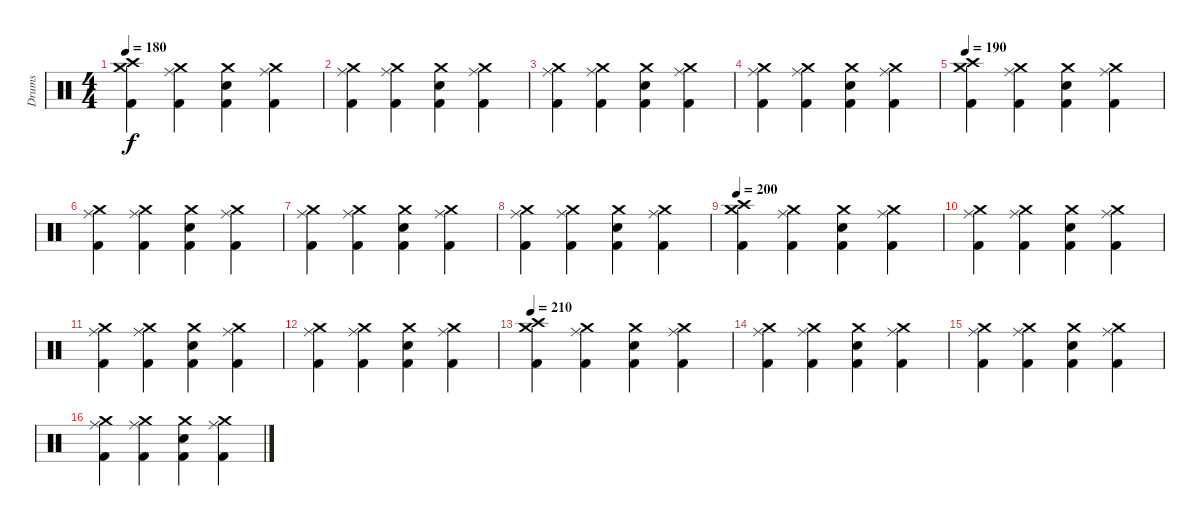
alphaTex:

\track ("Drums" "Drums") {instrument percussion}
\staff {score}
\articulation defaults
\ts (4 4)
\tempo 180
\clef neutral
\ks c
("Crash medium (hit)" "Crash high (hit)" "Kick (hit) 2").4{dy f} ("Crash medium (hit)" "Ride (middle)" "Kick (hit) 2").4 ("Crash medium (hit)" "Snare (hit) 2" "Kick (hit) 2").4 ("Crash medium (hit)" "Ride (middle)" "Kick (hit) 2").4 |
("Crash medium (hit)" "Ride (middle)" "Kick (hit) 2").4 ("Crash medium (hit)" "Ride (middle)" "Kick (hit) 2").4 ("Crash medium (hit)" "Snare (hit) 2" "Kick (hit) 2").4 ("Crash medium (hit)" "Ride (middle)" "Kick (hit) 2").4 |
("Crash medium (hit)" "Ride (middle)" "Kick (hit) 2").4 ("Crash medium (hit)" "Ride (middle)" "Kick (hit) 2").4 ("Crash medium (hit)" "Snare (hit) 2" "Kick (hit) 2").4 ("Crash medium (hit)" "Ride (middle)" "Kick (hit) 2").4 |
("Crash medium (hit)" "Ride (middle)" "Kick (hit) 2").4 ("Crash medium (hit)" "Ride (middle)" "Kick (hit) 2").4 ("Crash medium (hit)" "Snare (hit) 2" "Kick (hit) 2").4 ("Crash medium (hit)" "Ride (middle)" "Kick (hit) 2").4 |
\tempo 190
("Crash medium (hit)" "Crash high (hit)" "Kick (hit) 2").4 ("Crash medium (hit)" "Ride (middle)" "Kick (hit) 2").4 ("Crash medium (hit)" "Snare (hit) 2" "Kick (hit) 2").4 ("Crash medium (hit)" "Ride (middle)" "Kick (hit) 2").4 |
("Crash medium (hit)" "Ride (middle)" "Kick (hit) 2").4 ("Crash medium (hit)" "Ride (middle)" "Kick (hit) 2").4 ("Crash medium (hit)" "Snare (hit) 2" "Kick (hit) 2").4 ("Crash medium (hit)" "Ride (middle)" "Kick (hit) 2").4 |
("Crash medium (hit)" "Ride (middle)" "Kick (hit) 2").4 ("Crash medium (hit)" "Ride (middle)" "Kick (hit) 2").4 ("Crash medium (hit)" "Snare (hit) 2" "Kick (hit) 2").4 ("Crash medium (hit)" "Ride (middle)" "Kick (hit) 2").4 |
("Crash medium (hit)" "Ride (middle)" "Kick (hit) 2").4 ("Crash medium (hit)" "Ride (middle)" "Kick (hit) 2").4 ("Crash medium (hit)" "Snare (hit) 2" "Kick (hit) 2").4 ("Crash medium (hit)" "Ride (middle)" "Kick (hit) 2").4 |
\tempo 200
("Crash medium (hit)" "Crash high (hit)" "Kick (hit) 2").4 ("Crash medium (hit)" "Ride (middle)" "Kick (hit) 2").4 ("Crash medium (hit)" "Snare (hit) 2" "Kick (hit) 2").4 ("Crash medium (hit)" "Ride (middle)" "Kick (hit) 2").4 |
("Crash medium (hit)" "Ride (middle)" "Kick (hit) 2").4 ("Crash medium (hit)" "Ride (middle)" "Kick (hit) 2").4 ("Crash medium (hit)" "Snare (hit) 2" "Kick (hit) 2").4 ("Crash medium (hit)" "Ride (middle)" "Kick (hit) 2").4 |
("Crash medium (hit)" "Ride (middle)" "Kick (hit) 2").4 ("Crash medium (hit)" "Ride (middle)" "Kick (hit) 2").4 ("Crash medium (hit)" "Snare (hit) 2" "Kick (hit) 2").4 ("Crash medium (hit)" "Ride (middle)" "Kick (hit) 2").4 |
("Crash medium (hit)" "Ride (middle)" "Kick (hit) 2").4 ("Crash medium (hit)" "Ride (middle)" "Kick (hit) 2").4 ("Crash medium (hit)" "Snare (hit) 2" "Kick (hit) 2").4 ("Crash medium (hit)" "Ride (middle)" "Kick (hit) 2").4 |
\tempo 210
("Crash medium (hit)" "Crash high (hit)" "Kick (hit) 2").4 ("Crash medium (hit)" "Ride (middle)" "Kick (hit) 2").4 ("Crash medium (hit)" "Snare (hit) 2" "Kick (hit) 2").4 ("Crash medium (hit)" "Ride (middle)" "Kick (hit) 2").4 |
("Crash medium (hit)" "Ride (middle)" "Kick (hit) 2").4 ("Crash medium (hit)" "Ride (middle)" "Kick (hit) 2").4 ("Crash medium (hit)" "Snare (hit) 2" "Kick (hit) 2").4 ("Crash medium (hit)" "Ride (middle)" "Kick (hit) 2").4 |
("Crash medium (hit)" "Ride (middle)" "Kick (hit) 2").4 ("Crash medium (hit)" "Ride (middle)" "Kick (hit) 2").4 ("Crash medium (hit)" "Snare (hit) 2" "Kick (hit) 2").4 ("Crash medium (hit)" "Ride (middle)" "Kick (hit) 2").4 |
("Crash medium (hit)" "Ride (middle)" "Kick (hit) 2").4 ("Crash medium (hit)" "Ride (middle)" "Kick (hit) 2").4 ("Crash medium (hit)" "Snare (hit) 2" "Kick (hit) 2").4 ("Crash medium (hit)" "Ride (middle)" "Kick (hit) 2").4
